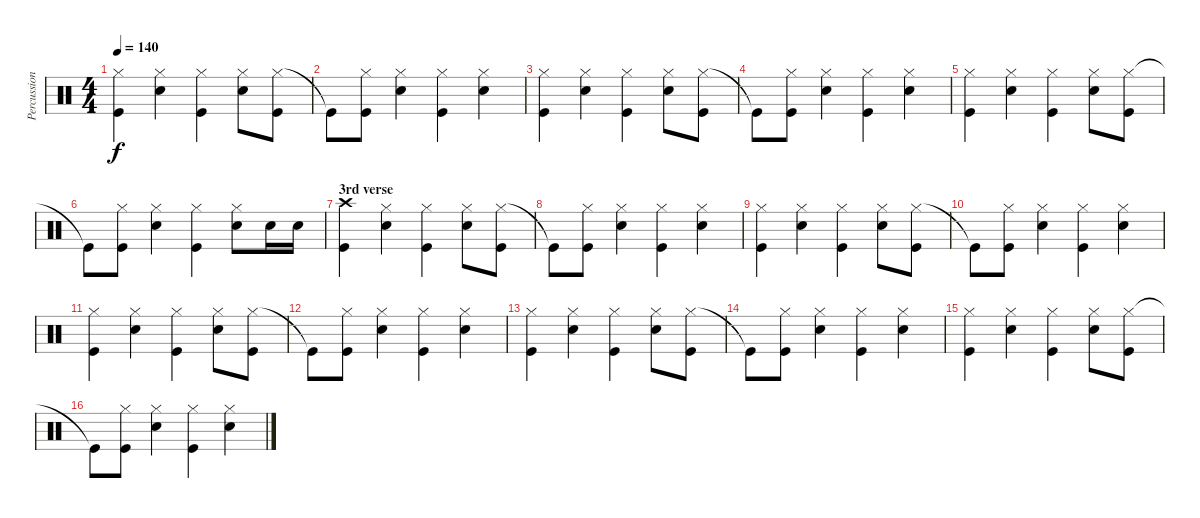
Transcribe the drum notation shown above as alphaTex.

\track ("Percussion" "Percussion") {instrument percussion}
\staff {score}
\articulation defaults
\ts (4 4)
\tempo 140
\clef neutral
\ks c
("Hi-Hat (closed)" "Kick (hit)").4{dy f} ("Hi-Hat (closed)" "Snare (hit) 2").4 ("Hi-Hat (closed)" "Kick (hit)").4 ("Hi-Hat (closed)" "Snare (hit) 2").8 ("Hi-Hat (closed)" "Kick (hit)").8 |
"Kick (hit)"{t}.8 ("Hi-Hat (closed)" "Kick (hit)").8 ("Hi-Hat (closed)" "Snare (hit) 2").4 ("Hi-Hat (closed)" "Kick (hit)").4 ("Hi-Hat (closed)" "Snare (hit) 2").4 |
("Hi-Hat (closed)" "Kick (hit)").4 ("Hi-Hat (closed)" "Snare (hit) 2").4 ("Hi-Hat (closed)" "Kick (hit)").4 ("Hi-Hat (closed)" "Snare (hit) 2").8 ("Hi-Hat (closed)" "Kick (hit)").8 |
"Kick (hit)"{t}.8 ("Hi-Hat (closed)" "Kick (hit)").8 ("Hi-Hat (closed)" "Snare (hit) 2").4 ("Hi-Hat (closed)" "Kick (hit)").4 ("Hi-Hat (closed)" "Snare (hit) 2").4 |
("Hi-Hat (closed)" "Kick (hit)").4 ("Hi-Hat (closed)" "Snare (hit) 2").4 ("Hi-Hat (closed)" "Kick (hit)").4 ("Hi-Hat (closed)" "Snare (hit) 2").8 ("Hi-Hat (closed)" "Kick (hit)").8 |
"Kick (hit)"{t}.8 ("Hi-Hat (closed)" "Kick (hit)").8 ("Hi-Hat (closed)" "Snare (hit) 2").4 ("Hi-Hat (closed)" "Kick (hit)").4 ("Hi-Hat (closed)" "Snare (hit) 2").8 "Snare (hit) 2".16 "Snare (hit) 2".16 |
\section ("" "3rd verse")
("Crash high (hit)" "Kick (hit)").4 ("Hi-Hat (closed)" "Snare (hit) 2").4 ("Hi-Hat (closed)" "Kick (hit)").4 ("Hi-Hat (closed)" "Snare (hit) 2").8 ("Hi-Hat (closed)" "Kick (hit)").8 |
"Kick (hit)"{t}.8 ("Hi-Hat (closed)" "Kick (hit)").8 ("Hi-Hat (closed)" "Snare (hit) 2").4 ("Hi-Hat (closed)" "Kick (hit)").4 ("Hi-Hat (closed)" "Snare (hit) 2").4 |
("Hi-Hat (closed)" "Kick (hit)").4 ("Hi-Hat (closed)" "Snare (hit) 2").4 ("Hi-Hat (closed)" "Kick (hit)").4 ("Hi-Hat (closed)" "Snare (hit) 2").8 ("Hi-Hat (closed)" "Kick (hit)").8 |
"Kick (hit)"{t}.8 ("Hi-Hat (closed)" "Kick (hit)").8 ("Hi-Hat (closed)" "Snare (hit) 2").4 ("Hi-Hat (closed)" "Kick (hit)").4 ("Hi-Hat (closed)" "Snare (hit) 2").4 |
("Hi-Hat (closed)" "Kick (hit)").4 ("Hi-Hat (closed)" "Snare (hit) 2").4 ("Hi-Hat (closed)" "Kick (hit)").4 ("Hi-Hat (closed)" "Snare (hit) 2").8 ("Hi-Hat (closed)" "Kick (hit)").8 |
"Kick (hit)"{t}.8 ("Hi-Hat (closed)" "Kick (hit)").8 ("Hi-Hat (closed)" "Snare (hit) 2").4 ("Hi-Hat (closed)" "Kick (hit)").4 ("Hi-Hat (closed)" "Snare (hit) 2").4 |
("Hi-Hat (closed)" "Kick (hit)").4 ("Hi-Hat (closed)" "Snare (hit) 2").4 ("Hi-Hat (closed)" "Kick (hit)").4 ("Hi-Hat (closed)" "Snare (hit) 2").8 ("Hi-Hat (closed)" "Kick (hit)").8 |
"Kick (hit)"{t}.8 ("Hi-Hat (closed)" "Kick (hit)").8 ("Hi-Hat (closed)" "Snare (hit) 2").4 ("Hi-Hat (closed)" "Kick (hit)").4 ("Hi-Hat (closed)" "Snare (hit) 2").4 |
("Hi-Hat (closed)" "Kick (hit)").4 ("Hi-Hat (closed)" "Snare (hit) 2").4 ("Hi-Hat (closed)" "Kick (hit)").4 ("Hi-Hat (closed)" "Snare (hit) 2").8 ("Hi-Hat (closed)" "Kick (hit)").8 |
"Kick (hit)"{t}.8 ("Hi-Hat (closed)" "Kick (hit)").8 ("Hi-Hat (closed)" "Snare (hit) 2").4 ("Hi-Hat (closed)" "Kick (hit)").4 ("Hi-Hat (closed)" "Snare (hit) 2").4
